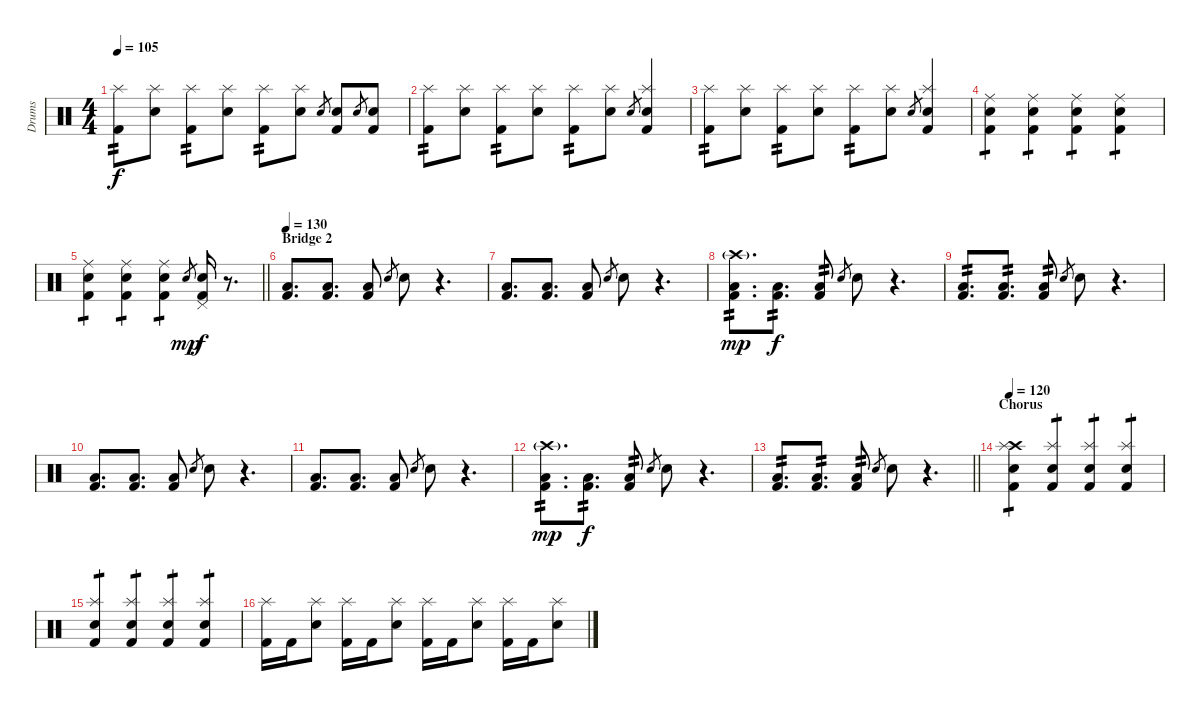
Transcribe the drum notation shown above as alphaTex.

\track ("Drums" "Drums") {instrument percussion}
\staff {score}
\articulation defaults
\ts (4 4)
\tempo 105
\clef neutral
\ks c
("Kick (hit) 2" "Splash (hit)").8{tp 2 dy f} ("Electric Snare (hit)" "Splash (hit)").8 ("Kick (hit) 2" "Splash (hit)").8{tp 2} ("Electric Snare (hit)" "Splash (hit)").8 ("Kick (hit) 2" "Splash (hit)").8{tp 2} ("Electric Snare (hit)" "Splash (hit)").8 "Electric Snare (hit)".8{gr} ("Kick (hit) 2" "Electric Snare (hit)").8 "Electric Snare (hit)".8{gr} ("Kick (hit) 2" "Electric Snare (hit)").8 |
("Kick (hit) 2" "Splash (hit)").8{tp 2} ("Electric Snare (hit)" "Splash (hit)").8 ("Kick (hit) 2" "Splash (hit)").8{tp 2} ("Electric Snare (hit)" "Splash (hit)").8 ("Kick (hit) 2" "Splash (hit)").8{tp 2} ("Electric Snare (hit)" "Splash (hit)").8 "Electric Snare (hit)".8{gr} ("Kick (hit) 2" "Electric Snare (hit)" "Splash (hit)").4 |
("Kick (hit) 2" "Splash (hit)").8{tp 2} ("Electric Snare (hit)" "Splash (hit)").8 ("Kick (hit) 2" "Splash (hit)").8{tp 2} ("Electric Snare (hit)" "Splash (hit)").8 ("Kick (hit) 2" "Splash (hit)").8{tp 2} ("Electric Snare (hit)" "Splash (hit)").8 "Electric Snare (hit)".8{gr} ("Kick (hit) 2" "Electric Snare (hit)" "Splash (hit)").4 |
("Kick (hit) 2" "Electric Snare (hit)" "Ride (middle)").4{tp 1} ("Kick (hit) 2" "Electric Snare (hit)" "Ride (middle)").4{tp 1} ("Kick (hit) 2" "Electric Snare (hit)" "Ride (middle)").4{tp 1} ("Kick (hit) 2" "Electric Snare (hit)" "Ride (middle)").4{tp 1} |
\barLineRight lightlight
("Kick (hit) 2" "Electric Snare (hit)" "Ride (middle)").4{tp 1} ("Kick (hit) 2" "Electric Snare (hit)" "Ride (middle)").4{tp 1} ("Kick (hit) 2" "Electric Snare (hit)" "Ride (middle)").4{tp 1} "Electric Snare (hit)".8{gr dy mp} ("Kick (hit) 2" "Electric Snare (hit)" "Pedal Hi-Hat (hit)").16{dy f} r.8{d} |
\section ("" "Bridge 2")
\tempo 130
("Low Tom (hit)" "Kick (hit) 2").8{d} ("Low Tom (hit)" "Kick (hit) 2").8{d} ("Low Tom (hit)" "Kick (hit) 2").8 "Electric Snare (hit)".8{gr} "Electric Snare (hit)".8 r.4{d} |
("Low Tom (hit)" "Kick (hit) 2").8{d} ("Low Tom (hit)" "Kick (hit) 2").8{d} ("Low Tom (hit)" "Kick (hit) 2").8 "Electric Snare (hit)".8{gr} "Electric Snare (hit)".8 r.4{d} |
("Low Tom (hit)" "Kick (hit) 2" "Crash high (hit)"{g}).8{d tp 2 dy mp} ("Low Tom (hit)" "Kick (hit) 2").8{d tp 2 dy f} ("Low Tom (hit)" "Kick (hit) 2").8{tp 2} "Electric Snare (hit)".8{gr} "Electric Snare (hit)".8 r.4{d} |
("Low Tom (hit)" "Kick (hit) 2").8{d tp 2} ("Low Tom (hit)" "Kick (hit) 2").8{d tp 2} ("Low Tom (hit)" "Kick (hit) 2").8{tp 2} "Electric Snare (hit)".8{gr} "Electric Snare (hit)".8 r.4{d} |
("Low Tom (hit)" "Kick (hit) 2").8{d} ("Low Tom (hit)" "Kick (hit) 2").8{d} ("Low Tom (hit)" "Kick (hit) 2").8 "Electric Snare (hit)".8{gr} "Electric Snare (hit)".8 r.4{d} |
("Low Tom (hit)" "Kick (hit) 2").8{d} ("Low Tom (hit)" "Kick (hit) 2").8{d} ("Low Tom (hit)" "Kick (hit) 2").8 "Electric Snare (hit)".8{gr} "Electric Snare (hit)".8 r.4{d} |
("Low Tom (hit)" "Kick (hit) 2" "Crash high (hit)"{g}).8{d tp 2 dy mp} ("Low Tom (hit)" "Kick (hit) 2").8{d tp 2 dy f} ("Low Tom (hit)" "Kick (hit) 2").8{tp 2} "Electric Snare (hit)".8{gr} "Electric Snare (hit)".8 r.4{d} |
\barLineRight lightlight
("Low Tom (hit)" "Kick (hit) 2").8{d tp 2} ("Low Tom (hit)" "Kick (hit) 2").8{d tp 2} ("Low Tom (hit)" "Kick (hit) 2").8{tp 2} "Electric Snare (hit)".8{gr} "Electric Snare (hit)".8 r.4{d} |
\section ("" "Chorus")
\tempo 120
("Kick (hit) 2" "Electric Snare (hit)" "Crash high (hit)" "Splash (hit)").4{tp 1} ("Kick (hit) 2" "Electric Snare (hit)" "Splash (hit)").4{tp 1} ("Kick (hit) 2" "Electric Snare (hit)" "Splash (hit)").4{tp 1} ("Kick (hit) 2" "Electric Snare (hit)" "Splash (hit)").4{tp 1} |
("Kick (hit) 2" "Electric Snare (hit)" "Splash (hit)").4{tp 1} ("Kick (hit) 2" "Electric Snare (hit)" "Splash (hit)").4{tp 1} ("Kick (hit) 2" "Electric Snare (hit)" "Splash (hit)").4{tp 1} ("Kick (hit) 2" "Electric Snare (hit)" "Splash (hit)").4{tp 1} |
("Kick (hit) 2" "Splash (hit)").16 "Kick (hit) 2".16 ("Electric Snare (hit)" "Splash (hit)").8 ("Kick (hit) 2" "Splash (hit)").16 "Kick (hit) 2".16 ("Electric Snare (hit)" "Splash (hit)").8 ("Kick (hit) 2" "Splash (hit)").16 "Kick (hit) 2".16 ("Electric Snare (hit)" "Splash (hit)").8 ("Kick (hit) 2" "Splash (hit)").16 "Kick (hit) 2".16 ("Electric Snare (hit)" "Splash (hit)").8
